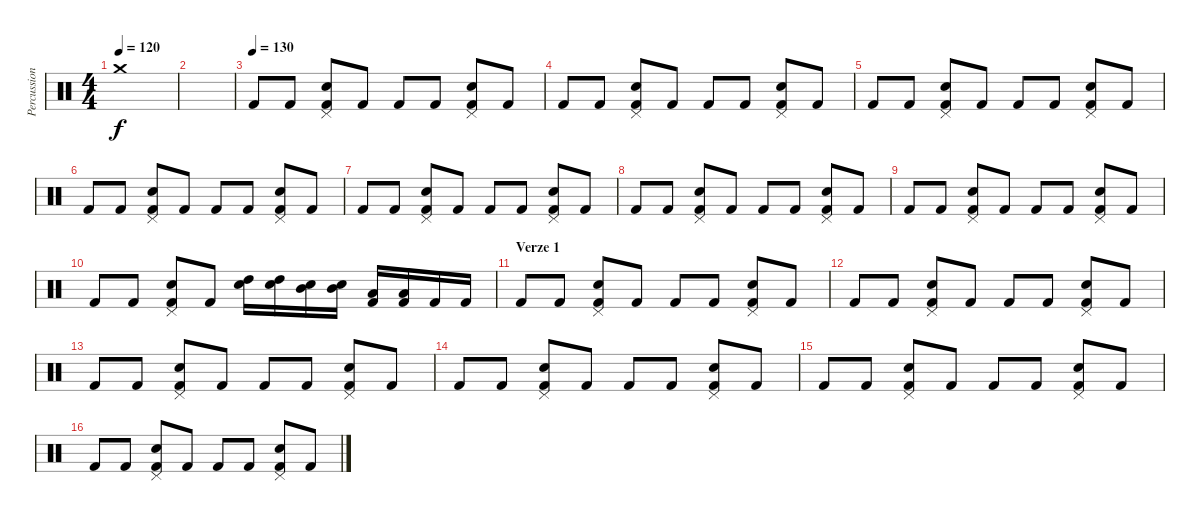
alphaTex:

\track ("Percussion" "Percussion") {instrument percussion}
\staff {score}
\articulation defaults
\ts (4 4)
\tempo 120
\clef neutral
\ks c "Crash medium (hit)".1{dy f}
|
|
\tempo (130)
"Kick (hit) 2".8 "Kick (hit) 2".8 ("Snare (hit) 2" "Kick (hit) 2" "Pedal Hi-Hat (hit)").8 "Kick (hit) 2".8 "Kick (hit) 2".8 "Kick (hit) 2".8 ("Snare (hit) 2" "Kick (hit) 2" "Pedal Hi-Hat (hit)").8 "Kick (hit) 2".8 |
"Kick (hit) 2".8 "Kick (hit) 2".8 ("Snare (hit) 2" "Kick (hit) 2" "Pedal Hi-Hat (hit)").8 "Kick (hit) 2".8 "Kick (hit) 2".8 "Kick (hit) 2".8 ("Snare (hit) 2" "Kick (hit) 2" "Pedal Hi-Hat (hit)").8 "Kick (hit) 2".8 |
"Kick (hit) 2".8 "Kick (hit) 2".8 ("Snare (hit) 2" "Kick (hit) 2" "Pedal Hi-Hat (hit)").8 "Kick (hit) 2".8 "Kick (hit) 2".8 "Kick (hit) 2".8 ("Snare (hit) 2" "Kick (hit) 2" "Pedal Hi-Hat (hit)").8 "Kick (hit) 2".8 |
"Kick (hit) 2".8 "Kick (hit) 2".8 ("Snare (hit) 2" "Kick (hit) 2" "Pedal Hi-Hat (hit)").8 "Kick (hit) 2".8 "Kick (hit) 2".8 "Kick (hit) 2".8 ("Snare (hit) 2" "Kick (hit) 2" "Pedal Hi-Hat (hit)").8 "Kick (hit) 2".8 |
"Kick (hit) 2".8 "Kick (hit) 2".8 ("Snare (hit) 2" "Kick (hit) 2" "Pedal Hi-Hat (hit)").8 "Kick (hit) 2".8 "Kick (hit) 2".8 "Kick (hit) 2".8 ("Snare (hit) 2" "Kick (hit) 2" "Pedal Hi-Hat (hit)").8 "Kick (hit) 2".8 |
"Kick (hit) 2".8 "Kick (hit) 2".8 ("Snare (hit) 2" "Kick (hit) 2" "Pedal Hi-Hat (hit)").8 "Kick (hit) 2".8 "Kick (hit) 2".8 "Kick (hit) 2".8 ("Snare (hit) 2" "Kick (hit) 2" "Pedal Hi-Hat (hit)").8 "Kick (hit) 2".8 |
"Kick (hit) 2".8 "Kick (hit) 2".8 ("Snare (hit) 2" "Kick (hit) 2" "Pedal Hi-Hat (hit)").8 "Kick (hit) 2".8 "Kick (hit) 2".8 "Kick (hit) 2".8 ("Snare (hit) 2" "Kick (hit) 2" "Pedal Hi-Hat (hit)").8 "Kick (hit) 2".8 |
"Kick (hit) 2".8 "Kick (hit) 2".8 ("Snare (hit) 2" "Kick (hit) 2" "Pedal Hi-Hat (hit)").8 "Kick (hit) 2".8 ("Electric Snare (hit)" "High Tom (hit)").16 ("Electric Snare (hit)" "High Tom (hit)").16 ("Electric Snare (hit)" "Mid Tom (hit)").16 ("Electric Snare (hit)" "Mid Tom (hit)").16 ("Kick (hit) 2" "Low Tom (hit)").16 ("Kick (hit) 2" "Low Tom (hit)").16 "Kick (hit) 2".16 "Kick (hit) 2".16 |
\section ("" "Verze 1")
"Kick (hit) 2".8 "Kick (hit) 2".8 ("Snare (hit) 2" "Kick (hit) 2" "Pedal Hi-Hat (hit)").8 "Kick (hit) 2".8 "Kick (hit) 2".8 "Kick (hit) 2".8 ("Snare (hit) 2" "Kick (hit) 2" "Pedal Hi-Hat (hit)").8 "Kick (hit) 2".8 |
"Kick (hit) 2".8 "Kick (hit) 2".8 ("Snare (hit) 2" "Kick (hit) 2" "Pedal Hi-Hat (hit)").8 "Kick (hit) 2".8 "Kick (hit) 2".8 "Kick (hit) 2".8 ("Snare (hit) 2" "Kick (hit) 2" "Pedal Hi-Hat (hit)").8 "Kick (hit) 2".8 |
"Kick (hit) 2".8 "Kick (hit) 2".8 ("Snare (hit) 2" "Kick (hit) 2" "Pedal Hi-Hat (hit)").8 "Kick (hit) 2".8 "Kick (hit) 2".8 "Kick (hit) 2".8 ("Snare (hit) 2" "Kick (hit) 2" "Pedal Hi-Hat (hit)").8 "Kick (hit) 2".8 |
"Kick (hit) 2".8 "Kick (hit) 2".8 ("Snare (hit) 2" "Kick (hit) 2" "Pedal Hi-Hat (hit)").8 "Kick (hit) 2".8 "Kick (hit) 2".8 "Kick (hit) 2".8 ("Snare (hit) 2" "Kick (hit) 2" "Pedal Hi-Hat (hit)").8 "Kick (hit) 2".8 |
"Kick (hit) 2".8 "Kick (hit) 2".8 ("Snare (hit) 2" "Kick (hit) 2" "Pedal Hi-Hat (hit)").8 "Kick (hit) 2".8 "Kick (hit) 2".8 "Kick (hit) 2".8 ("Snare (hit) 2" "Kick (hit) 2" "Pedal Hi-Hat (hit)").8 "Kick (hit) 2".8 |
"Kick (hit) 2".8 "Kick (hit) 2".8 ("Snare (hit) 2" "Kick (hit) 2" "Pedal Hi-Hat (hit)").8 "Kick (hit) 2".8 "Kick (hit) 2".8 "Kick (hit) 2".8 ("Snare (hit) 2" "Kick (hit) 2" "Pedal Hi-Hat (hit)").8 "Kick (hit) 2".8
